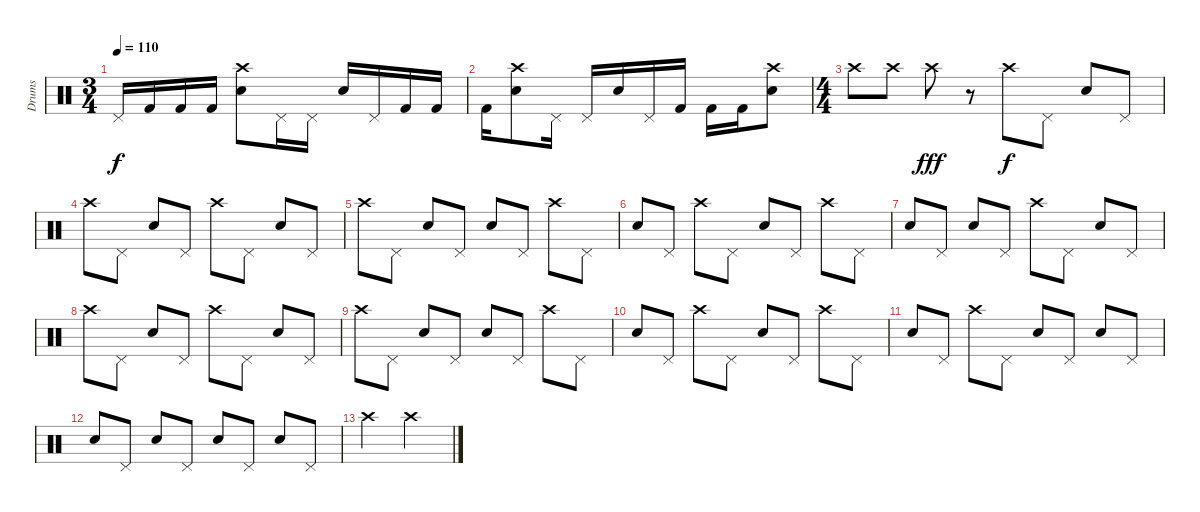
\track ("Drums" "Drums") {instrument percussion}
\staff {score}
\articulation defaults
\ts (3 4)
\tempo 110
\clef neutral
\ks c "Pedal Hi-Hat (hit)".16{dy f} "Kick (hit) 2".16 "Kick (hit) 2".16 "Kick (hit) 2".16
("Crash high (hit)" "Electric Snare (hit)").8 "Pedal Hi-Hat (hit)".16 "Pedal Hi-Hat (hit)".16 "Electric Snare (hit)".16 "Pedal Hi-Hat (hit)".16 "Kick (hit) 2".16 "Kick (hit) 2".16 |
"Kick (hit) 2".16 ("Crash high (hit)" "Electric Snare (hit)").8 "Pedal Hi-Hat (hit)".16 "Pedal Hi-Hat (hit)".16 "Electric Snare (hit)".16 "Pedal Hi-Hat (hit)".16 "Kick (hit) 2".16 "Kick (hit) 2".16 "Kick (hit) 2".16 ("Crash high (hit)" "Electric Snare (hit)").8 |
\ts (4 4)
"Crash high (hit)".8 "Crash high (hit)".8 "Crash high (hit)".8{dy fff} r.8 "Crash high (hit)".8{dy f} "Pedal Hi-Hat (hit)".8 "Electric Snare (hit)".8 "Pedal Hi-Hat (hit)".8 |
"Crash high (hit)".8 "Pedal Hi-Hat (hit)".8 "Electric Snare (hit)".8 "Pedal Hi-Hat (hit)".8 "Crash high (hit)".8 "Pedal Hi-Hat (hit)".8 "Electric Snare (hit)".8 "Pedal Hi-Hat (hit)".8 |
"Crash high (hit)".8 "Pedal Hi-Hat (hit)".8 "Electric Snare (hit)".8 "Pedal Hi-Hat (hit)".8 "Electric Snare (hit)".8 "Pedal Hi-Hat (hit)".8 "Crash high (hit)".8 "Pedal Hi-Hat (hit)".8 |
"Electric Snare (hit)".8 "Pedal Hi-Hat (hit)".8 "Crash high (hit)".8 "Pedal Hi-Hat (hit)".8 "Electric Snare (hit)".8 "Pedal Hi-Hat (hit)".8 "Crash high (hit)".8 "Pedal Hi-Hat (hit)".8 |
"Electric Snare (hit)".8 "Pedal Hi-Hat (hit)".8 "Electric Snare (hit)".8 "Pedal Hi-Hat (hit)".8 "Crash high (hit)".8 "Pedal Hi-Hat (hit)".8 "Electric Snare (hit)".8 "Pedal Hi-Hat (hit)".8 |
"Crash high (hit)".8 "Pedal Hi-Hat (hit)".8 "Electric Snare (hit)".8 "Pedal Hi-Hat (hit)".8 "Crash high (hit)".8 "Pedal Hi-Hat (hit)".8 "Electric Snare (hit)".8 "Pedal Hi-Hat (hit)".8 |
"Crash high (hit)".8 "Pedal Hi-Hat (hit)".8 "Electric Snare (hit)".8 "Pedal Hi-Hat (hit)".8 "Electric Snare (hit)".8 "Pedal Hi-Hat (hit)".8 "Crash high (hit)".8 "Pedal Hi-Hat (hit)".8 |
"Electric Snare (hit)".8 "Pedal Hi-Hat (hit)".8 "Crash high (hit)".8 "Pedal Hi-Hat (hit)".8 "Electric Snare (hit)".8 "Pedal Hi-Hat (hit)".8 "Crash high (hit)".8 "Pedal Hi-Hat (hit)".8 |
"Electric Snare (hit)".8 "Pedal Hi-Hat (hit)".8 "Crash high (hit)".8 "Pedal Hi-Hat (hit)".8 "Electric Snare (hit)".8 "Pedal Hi-Hat (hit)".8 "Electric Snare (hit)".8 "Pedal Hi-Hat (hit)".8 |
"Electric Snare (hit)".8 "Pedal Hi-Hat (hit)".8 "Electric Snare (hit)".8 "Pedal Hi-Hat (hit)".8 "Electric Snare (hit)".8 "Pedal Hi-Hat (hit)".8 "Electric Snare (hit)".8 "Pedal Hi-Hat (hit)".8 |
"Crash high (hit)".2 "Crash high (hit)".2
